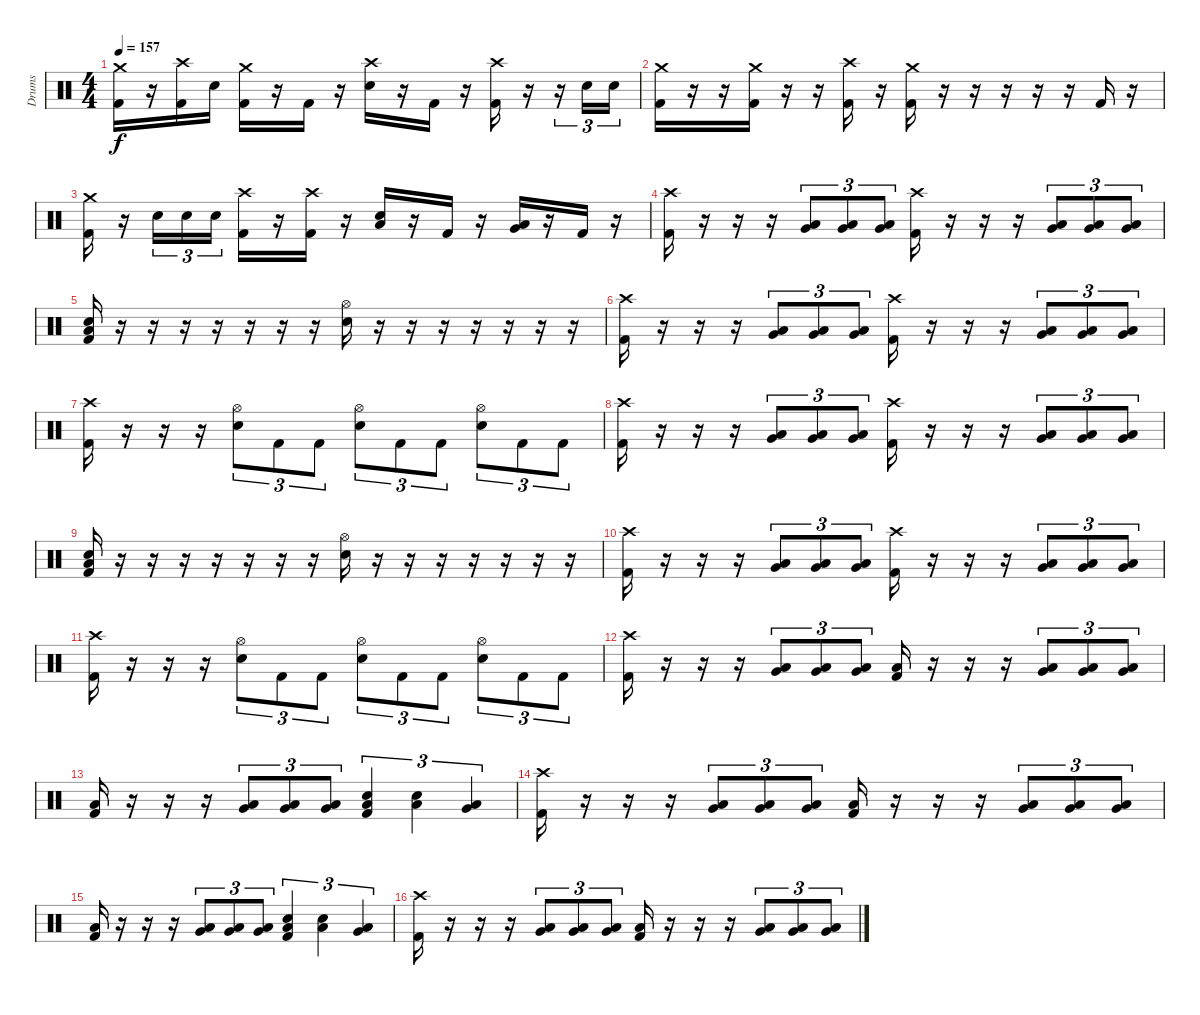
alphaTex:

\track ("Drums" "Drums") {instrument percussion}
\staff {score}
\articulation defaults
\ts (4 4)
\tempo 157
\clef neutral
\ks c
("Crash medium (hit)" "Kick (hit) 2").16{dy f} r.16 ("Crash high (hit)" "Kick (hit) 2").16 "Snare (hit) 2".16 ("Crash medium (hit)" "Kick (hit) 2").16 r.16 "Kick (hit) 2".16 r.16 ("Crash high (hit)" "Snare (hit) 2").16 r.16 "Kick (hit) 2".16 r.16 ("Crash high (hit)" "Kick (hit) 2").16 r.16 r.16{tu (3 2)} "Snare (hit) 2".16{tu (3 2)} "Snare (hit) 2".16{tu (3 2)} |
("Crash medium (hit)" "Kick (hit) 2").16 r.16 r.16 ("Crash medium (hit)" "Kick (hit) 2").16 r.16 r.16 ("Crash high (hit)" "Kick (hit) 2").16 r.16 ("Crash medium (hit)" "Kick (hit) 2").16 r.16 r.16 r.16 r.16 r.16 "Kick (hit) 2".16 r.16 |
("Crash medium (hit)" "Kick (hit) 2").16 r.16 "Snare (hit) 2".16{tu (3 2)} "Snare (hit) 2".16{tu (3 2)} "Snare (hit) 2".16{tu (3 2)} ("Crash high (hit)" "Kick (hit) 2").16 r.16 ("Crash high (hit)" "Kick (hit) 2").16 r.16 ("Low Tom (hit)" "Snare (hit) 2").16 r.16 "Kick (hit) 2".16 r.16 ("Very Low Tom (hit)" "Low Tom (hit)").16 r.16 "Kick (hit) 2".16 r.16 |
("Crash high (hit)" "Kick (hit) 2").16 r.16 r.16 r.16 ("Very Low Tom (hit)" "Low Tom (hit)").8{tu (3 2)} ("Very Low Tom (hit)" "Low Tom (hit)").8{tu (3 2)} ("Very Low Tom (hit)" "Low Tom (hit)").8{tu (3 2)} ("Crash high (hit)" "Kick (hit) 2").16 r.16 r.16 r.16 ("Very Low Tom (hit)" "Low Tom (hit)").8{tu (3 2)} ("Very Low Tom (hit)" "Low Tom (hit)").8{tu (3 2)} ("Very Low Tom (hit)" "Low Tom (hit)").8{tu (3 2)} |
("Low Tom (hit)" "Snare (hit) 2" "Kick (hit) 2").16 r.16 r.16 r.16 r.16 r.16 r.16 r.16 ("Hi-Hat (open)" "Snare (hit) 2").16 r.16 r.16 r.16 r.16 r.16 r.16 r.16 |
("Crash high (hit)" "Kick (hit) 2").16 r.16 r.16 r.16 ("Very Low Tom (hit)" "Low Tom (hit)").8{tu (3 2)} ("Very Low Tom (hit)" "Low Tom (hit)").8{tu (3 2)} ("Very Low Tom (hit)" "Low Tom (hit)").8{tu (3 2)} ("Crash high (hit)" "Kick (hit) 2").16 r.16 r.16 r.16 ("Very Low Tom (hit)" "Low Tom (hit)").8{tu (3 2)} ("Very Low Tom (hit)" "Low Tom (hit)").8{tu (3 2)} ("Very Low Tom (hit)" "Low Tom (hit)").8{tu (3 2)} |
("Crash high (hit)" "Kick (hit) 2").16 r.16 r.16 r.16 ("Hi-Hat (open)" "Snare (hit) 2").8{tu (3 2)} "Kick (hit) 2".8{tu (3 2)} "Kick (hit) 2".8{tu (3 2)} ("Hi-Hat (open)" "Snare (hit) 2").8{tu (3 2)} "Kick (hit) 2".8{tu (3 2)} "Kick (hit) 2".8{tu (3 2)} ("Hi-Hat (open)" "Snare (hit) 2").8{tu (3 2)} "Kick (hit) 2".8{tu (3 2)} "Kick (hit) 2".8{tu (3 2)} |
("Crash high (hit)" "Kick (hit) 2").16 r.16 r.16 r.16 ("Very Low Tom (hit)" "Low Tom (hit)").8{tu (3 2)} ("Very Low Tom (hit)" "Low Tom (hit)").8{tu (3 2)} ("Very Low Tom (hit)" "Low Tom (hit)").8{tu (3 2)} ("Crash high (hit)" "Kick (hit) 2").16 r.16 r.16 r.16 ("Very Low Tom (hit)" "Low Tom (hit)").8{tu (3 2)} ("Very Low Tom (hit)" "Low Tom (hit)").8{tu (3 2)} ("Very Low Tom (hit)" "Low Tom (hit)").8{tu (3 2)} |
("Low Tom (hit)" "Snare (hit) 2" "Kick (hit) 2").16 r.16 r.16 r.16 r.16 r.16 r.16 r.16 ("Hi-Hat (open)" "Snare (hit) 2").16 r.16 r.16 r.16 r.16 r.16 r.16 r.16 |
("Crash high (hit)" "Kick (hit) 2").16 r.16 r.16 r.16 ("Very Low Tom (hit)" "Low Tom (hit)").8{tu (3 2)} ("Very Low Tom (hit)" "Low Tom (hit)").8{tu (3 2)} ("Very Low Tom (hit)" "Low Tom (hit)").8{tu (3 2)} ("Crash high (hit)" "Kick (hit) 2").16 r.16 r.16 r.16 ("Very Low Tom (hit)" "Low Tom (hit)").8{tu (3 2)} ("Very Low Tom (hit)" "Low Tom (hit)").8{tu (3 2)} ("Very Low Tom (hit)" "Low Tom (hit)").8{tu (3 2)} |
("Crash high (hit)" "Kick (hit) 2").16 r.16 r.16 r.16 ("Hi-Hat (open)" "Snare (hit) 2").8{tu (3 2)} "Kick (hit) 2".8{tu (3 2)} "Kick (hit) 2".8{tu (3 2)} ("Hi-Hat (open)" "Snare (hit) 2").8{tu (3 2)} "Kick (hit) 2".8{tu (3 2)} "Kick (hit) 2".8{tu (3 2)} ("Hi-Hat (open)" "Snare (hit) 2").8{tu (3 2)} "Kick (hit) 2".8{tu (3 2)} "Kick (hit) 2".8{tu (3 2)} |
("Crash high (hit)" "Kick (hit) 2").16 r.16 r.16 r.16 ("Very Low Tom (hit)" "Low Tom (hit)").8{tu (3 2)} ("Very Low Tom (hit)" "Low Tom (hit)").8{tu (3 2)} ("Very Low Tom (hit)" "Low Tom (hit)").8{tu (3 2)} ("Low Tom (hit)" "Kick (hit) 2").16 r.16 r.16 r.16 ("Very Low Tom (hit)" "Low Tom (hit)").8{tu (3 2)} ("Very Low Tom (hit)" "Low Tom (hit)").8{tu (3 2)} ("Very Low Tom (hit)" "Low Tom (hit)").8{tu (3 2)} |
("Low Tom (hit)" "Kick (hit) 2").16 r.16 r.16 r.16 ("Very Low Tom (hit)" "Low Tom (hit)").8{tu (3 2)} ("Very Low Tom (hit)" "Low Tom (hit)").8{tu (3 2)} ("Very Low Tom (hit)" "Low Tom (hit)").8{tu (3 2)} ("Low Tom (hit)" "Snare (hit) 2" "Kick (hit) 2").4{tu (3 2)} ("Low Tom (hit)" "Snare (hit) 2").4{tu (3 2)} ("Very Low Tom (hit)" "Low Tom (hit)").4{tu (3 2)} |
("Crash high (hit)" "Kick (hit) 2").16 r.16 r.16 r.16 ("Very Low Tom (hit)" "Low Tom (hit)").8{tu (3 2)} ("Very Low Tom (hit)" "Low Tom (hit)").8{tu (3 2)} ("Very Low Tom (hit)" "Low Tom (hit)").8{tu (3 2)} ("Low Tom (hit)" "Kick (hit) 2").16 r.16 r.16 r.16 ("Very Low Tom (hit)" "Low Tom (hit)").8{tu (3 2)} ("Very Low Tom (hit)" "Low Tom (hit)").8{tu (3 2)} ("Very Low Tom (hit)" "Low Tom (hit)").8{tu (3 2)} |
("Low Tom (hit)" "Kick (hit) 2").16 r.16 r.16 r.16 ("Very Low Tom (hit)" "Low Tom (hit)").8{tu (3 2)} ("Very Low Tom (hit)" "Low Tom (hit)").8{tu (3 2)} ("Very Low Tom (hit)" "Low Tom (hit)").8{tu (3 2)} ("Low Tom (hit)" "Snare (hit) 2" "Kick (hit) 2").4{tu (3 2)} ("Low Tom (hit)" "Snare (hit) 2").4{tu (3 2)} ("Very Low Tom (hit)" "Low Tom (hit)").4{tu (3 2)} |
("Crash high (hit)" "Kick (hit) 2").16 r.16 r.16 r.16 ("Very Low Tom (hit)" "Low Tom (hit)").8{tu (3 2)} ("Very Low Tom (hit)" "Low Tom (hit)").8{tu (3 2)} ("Very Low Tom (hit)" "Low Tom (hit)").8{tu (3 2)} ("Low Tom (hit)" "Kick (hit) 2").16 r.16 r.16 r.16 ("Very Low Tom (hit)" "Low Tom (hit)").8{tu (3 2)} ("Very Low Tom (hit)" "Low Tom (hit)").8{tu (3 2)} ("Very Low Tom (hit)" "Low Tom (hit)").8{tu (3 2)}
